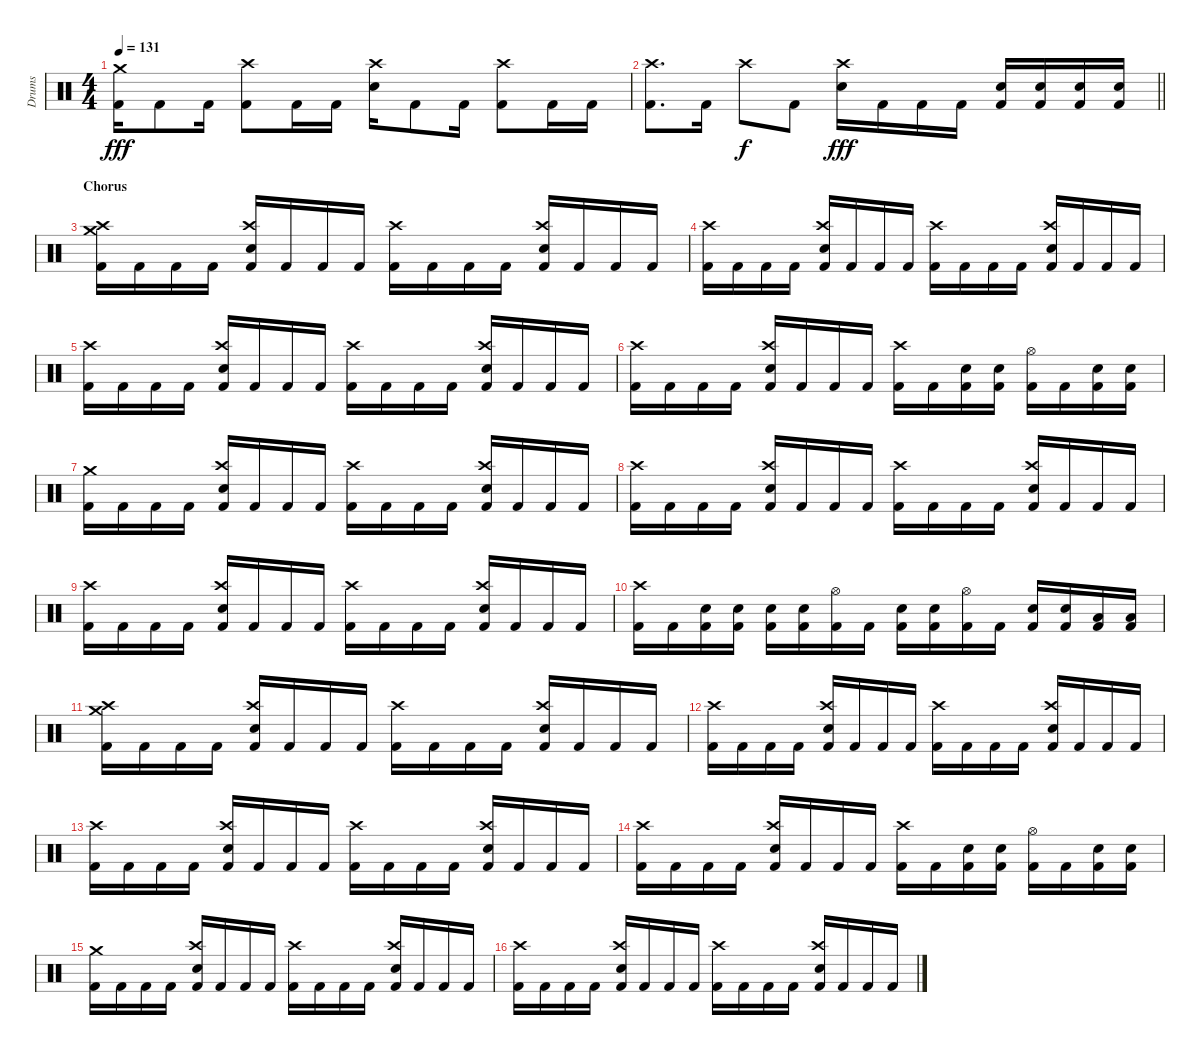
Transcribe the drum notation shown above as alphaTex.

\track ("Drums" "Drums") {instrument percussion}
\staff {score}
\articulation defaults
\ts (4 4)
\tempo 131
\clef neutral
\ks c
("Crash medium (hit)" "Kick (hit) 2").16{dy fff} "Kick (hit) 2".8 "Kick (hit) 2".16 ("Crash high (hit)" "Kick (hit) 2").8 "Kick (hit) 2".16 "Kick (hit) 2".16 ("Crash high (hit)" "Electric Snare (hit)").16 "Kick (hit) 2".8 "Kick (hit) 2".16 ("Crash high (hit)" "Kick (hit) 2").8 "Kick (hit) 2".16 "Kick (hit) 2".16 |
\barLineRight lightlight
("Crash high (hit)" "Kick (hit) 2").8{d} "Kick (hit) 2".16 "Crash high (hit)".8{dy f} "Kick (hit) 2".8 ("Crash high (hit)" "Electric Snare (hit)").16{dy fff} "Kick (hit) 2".16 "Kick (hit) 2".16 "Kick (hit) 2".16 ("Electric Snare (hit)" "Kick (hit) 2").16 ("Electric Snare (hit)" "Kick (hit) 2").16 ("Electric Snare (hit)" "Kick (hit) 2").16 ("Electric Snare (hit)" "Kick (hit) 2").16 |
\section ("" "Chorus")
("Crash medium (hit)" "Crash high (hit)" "Kick (hit) 2").16 "Kick (hit) 2".16 "Kick (hit) 2".16 "Kick (hit) 2".16 ("Crash high (hit)" "Electric Snare (hit)" "Kick (hit) 2").16 "Kick (hit) 2".16 "Kick (hit) 2".16 "Kick (hit) 2".16 ("Crash high (hit)" "Kick (hit) 2").16 "Kick (hit) 2".16 "Kick (hit) 2".16 "Kick (hit) 2".16 ("Crash high (hit)" "Electric Snare (hit)" "Kick (hit) 2").16 "Kick (hit) 2".16 "Kick (hit) 2".16 "Kick (hit) 2".16 |
("Crash high (hit)" "Kick (hit) 2").16 "Kick (hit) 2".16 "Kick (hit) 2".16 "Kick (hit) 2".16 ("Crash high (hit)" "Electric Snare (hit)" "Kick (hit) 2").16 "Kick (hit) 2".16 "Kick (hit) 2".16 "Kick (hit) 2".16 ("Crash high (hit)" "Kick (hit) 2").16 "Kick (hit) 2".16 "Kick (hit) 2".16 "Kick (hit) 2".16 ("Crash high (hit)" "Electric Snare (hit)" "Kick (hit) 2").16 "Kick (hit) 2".16 "Kick (hit) 2".16 "Kick (hit) 2".16 |
("Crash high (hit)" "Kick (hit) 2").16 "Kick (hit) 2".16 "Kick (hit) 2".16 "Kick (hit) 2".16 ("Crash high (hit)" "Electric Snare (hit)" "Kick (hit) 2").16 "Kick (hit) 2".16 "Kick (hit) 2".16 "Kick (hit) 2".16 ("Crash high (hit)" "Kick (hit) 2").16 "Kick (hit) 2".16 "Kick (hit) 2".16 "Kick (hit) 2".16 ("Crash high (hit)" "Electric Snare (hit)" "Kick (hit) 2").16 "Kick (hit) 2".16 "Kick (hit) 2".16 "Kick (hit) 2".16 |
("Crash high (hit)" "Kick (hit) 2").16 "Kick (hit) 2".16 "Kick (hit) 2".16 "Kick (hit) 2".16 ("Crash high (hit)" "Electric Snare (hit)" "Kick (hit) 2").16 "Kick (hit) 2".16 "Kick (hit) 2".16 "Kick (hit) 2".16 ("Crash high (hit)" "Kick (hit) 2").16 "Kick (hit) 2".16 ("Electric Snare (hit)" "Kick (hit) 2").16 ("Electric Snare (hit)" "Kick (hit) 2").16 ("Hi-Hat (open)" "Kick (hit) 2").16 "Kick (hit) 2".16 ("Electric Snare (hit)" "Kick (hit) 2").16 ("Electric Snare (hit)" "Kick (hit) 2").16 |
("Crash medium (hit)" "Kick (hit) 2").16 "Kick (hit) 2".16 "Kick (hit) 2".16 "Kick (hit) 2".16 ("Crash high (hit)" "Electric Snare (hit)" "Kick (hit) 2").16 "Kick (hit) 2".16 "Kick (hit) 2".16 "Kick (hit) 2".16 ("Crash high (hit)" "Kick (hit) 2").16 "Kick (hit) 2".16 "Kick (hit) 2".16 "Kick (hit) 2".16 ("Crash high (hit)" "Electric Snare (hit)" "Kick (hit) 2").16 "Kick (hit) 2".16 "Kick (hit) 2".16 "Kick (hit) 2".16 |
("Crash high (hit)" "Kick (hit) 2").16 "Kick (hit) 2".16 "Kick (hit) 2".16 "Kick (hit) 2".16 ("Crash high (hit)" "Electric Snare (hit)" "Kick (hit) 2").16 "Kick (hit) 2".16 "Kick (hit) 2".16 "Kick (hit) 2".16 ("Crash high (hit)" "Kick (hit) 2").16 "Kick (hit) 2".16 "Kick (hit) 2".16 "Kick (hit) 2".16 ("Crash high (hit)" "Electric Snare (hit)" "Kick (hit) 2").16 "Kick (hit) 2".16 "Kick (hit) 2".16 "Kick (hit) 2".16 |
("Crash high (hit)" "Kick (hit) 2").16 "Kick (hit) 2".16 "Kick (hit) 2".16 "Kick (hit) 2".16 ("Crash high (hit)" "Electric Snare (hit)" "Kick (hit) 2").16 "Kick (hit) 2".16 "Kick (hit) 2".16 "Kick (hit) 2".16 ("Crash high (hit)" "Kick (hit) 2").16 "Kick (hit) 2".16 "Kick (hit) 2".16 "Kick (hit) 2".16 ("Crash high (hit)" "Electric Snare (hit)" "Kick (hit) 2").16 "Kick (hit) 2".16 "Kick (hit) 2".16 "Kick (hit) 2".16 |
("Crash high (hit)" "Kick (hit) 2").16 "Kick (hit) 2".16 ("Electric Snare (hit)" "Kick (hit) 2").16 ("Electric Snare (hit)" "Kick (hit) 2").16 ("Electric Snare (hit)" "Kick (hit) 2").16 ("Electric Snare (hit)" "Kick (hit) 2").16 ("Hi-Hat (open)" "Kick (hit) 2").16 "Kick (hit) 2".16 ("Electric Snare (hit)" "Kick (hit) 2").16 ("Electric Snare (hit)" "Kick (hit) 2").16 ("Hi-Hat (open)" "Kick (hit) 2").16 "Kick (hit) 2".16 ("Electric Snare (hit)" "Kick (hit) 2").16 ("Electric Snare (hit)" "Kick (hit) 2").16 ("Low Tom (hit)" "Kick (hit) 2").16 ("Low Tom (hit)" "Kick (hit) 2").16 |
("Crash medium (hit)" "Crash high (hit)" "Kick (hit) 2").16 "Kick (hit) 2".16 "Kick (hit) 2".16 "Kick (hit) 2".16 ("Crash high (hit)" "Electric Snare (hit)" "Kick (hit) 2").16 "Kick (hit) 2".16 "Kick (hit) 2".16 "Kick (hit) 2".16 ("Crash high (hit)" "Kick (hit) 2").16 "Kick (hit) 2".16 "Kick (hit) 2".16 "Kick (hit) 2".16 ("Crash high (hit)" "Electric Snare (hit)" "Kick (hit) 2").16 "Kick (hit) 2".16 "Kick (hit) 2".16 "Kick (hit) 2".16 |
("Crash high (hit)" "Kick (hit) 2").16 "Kick (hit) 2".16 "Kick (hit) 2".16 "Kick (hit) 2".16 ("Crash high (hit)" "Electric Snare (hit)" "Kick (hit) 2").16 "Kick (hit) 2".16 "Kick (hit) 2".16 "Kick (hit) 2".16 ("Crash high (hit)" "Kick (hit) 2").16 "Kick (hit) 2".16 "Kick (hit) 2".16 "Kick (hit) 2".16 ("Crash high (hit)" "Electric Snare (hit)" "Kick (hit) 2").16 "Kick (hit) 2".16 "Kick (hit) 2".16 "Kick (hit) 2".16 |
("Crash high (hit)" "Kick (hit) 2").16 "Kick (hit) 2".16 "Kick (hit) 2".16 "Kick (hit) 2".16 ("Crash high (hit)" "Electric Snare (hit)" "Kick (hit) 2").16 "Kick (hit) 2".16 "Kick (hit) 2".16 "Kick (hit) 2".16 ("Crash high (hit)" "Kick (hit) 2").16 "Kick (hit) 2".16 "Kick (hit) 2".16 "Kick (hit) 2".16 ("Crash high (hit)" "Electric Snare (hit)" "Kick (hit) 2").16 "Kick (hit) 2".16 "Kick (hit) 2".16 "Kick (hit) 2".16 |
("Crash high (hit)" "Kick (hit) 2").16 "Kick (hit) 2".16 "Kick (hit) 2".16 "Kick (hit) 2".16 ("Crash high (hit)" "Electric Snare (hit)" "Kick (hit) 2").16 "Kick (hit) 2".16 "Kick (hit) 2".16 "Kick (hit) 2".16 ("Crash high (hit)" "Kick (hit) 2").16 "Kick (hit) 2".16 ("Electric Snare (hit)" "Kick (hit) 2").16 ("Electric Snare (hit)" "Kick (hit) 2").16 ("Hi-Hat (open)" "Kick (hit) 2").16 "Kick (hit) 2".16 ("Electric Snare (hit)" "Kick (hit) 2").16 ("Electric Snare (hit)" "Kick (hit) 2").16 |
("Crash medium (hit)" "Kick (hit) 2").16 "Kick (hit) 2".16 "Kick (hit) 2".16 "Kick (hit) 2".16 ("Crash high (hit)" "Electric Snare (hit)" "Kick (hit) 2").16 "Kick (hit) 2".16 "Kick (hit) 2".16 "Kick (hit) 2".16 ("Crash high (hit)" "Kick (hit) 2").16 "Kick (hit) 2".16 "Kick (hit) 2".16 "Kick (hit) 2".16 ("Crash high (hit)" "Electric Snare (hit)" "Kick (hit) 2").16 "Kick (hit) 2".16 "Kick (hit) 2".16 "Kick (hit) 2".16 |
("Crash high (hit)" "Kick (hit) 2").16 "Kick (hit) 2".16 "Kick (hit) 2".16 "Kick (hit) 2".16 ("Crash high (hit)" "Electric Snare (hit)" "Kick (hit) 2").16 "Kick (hit) 2".16 "Kick (hit) 2".16 "Kick (hit) 2".16 ("Crash high (hit)" "Kick (hit) 2").16 "Kick (hit) 2".16 "Kick (hit) 2".16 "Kick (hit) 2".16 ("Crash high (hit)" "Electric Snare (hit)" "Kick (hit) 2").16 "Kick (hit) 2".16 "Kick (hit) 2".16 "Kick (hit) 2".16
